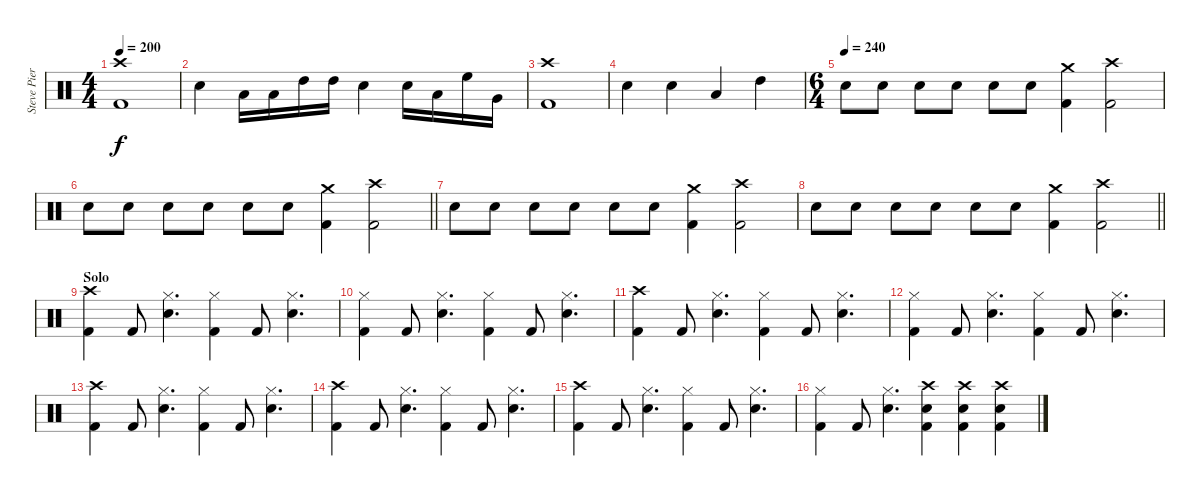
\track ("Steve Pierce" "Steve Pier") {instrument percussion}
\staff {score}
\articulation defaults
\ts (4 4)
\tempo 200
\clef neutral
\ks c
("Crash high (hit)" "Kick (hit) 2").1{dy f} |
"Snare (hit) 2".4 "Low Tom (hit)".16 "Low Tom (hit)".16 "High Tom (hit)".16 "High Tom (hit)".16 "Snare (hit) 2".4 "Snare (hit) 2".16 "Low Tom (hit)".16 "High Floor Tom (hit)".16 "Very Low Tom (hit)".16 |
("Crash high (hit)" "Kick (hit) 2").1 |
"Snare (hit) 2".4 "Snare (hit) 2".4 "Low Tom (hit)".4 "High Tom (hit)".4 |
\ts (6 4)
\tempo (240)
"Snare (hit) 2".8 "Snare (hit) 2".8 "Snare (hit) 2".8 "Snare (hit) 2".8 "Snare (hit) 2".8 "Snare (hit) 2".8 ("Crash medium (hit)" "Kick (hit) 2").4 ("Crash high (hit)" "Kick (hit) 2").2 |
\barLineRight lightlight "Snare (hit) 2".8 "Snare (hit) 2".8 "Snare (hit) 2".8 "Snare (hit) 2".8 "Snare (hit) 2".8 "Snare (hit) 2".8
("Crash medium (hit)" "Kick (hit) 2").4 ("Crash high (hit)" "Kick (hit) 2").2 |
"Snare (hit) 2".8 "Snare (hit) 2".8 "Snare (hit) 2".8 "Snare (hit) 2".8 "Snare (hit) 2".8 "Snare (hit) 2".8 ("Crash medium (hit)" "Kick (hit) 2").4 ("Crash high (hit)" "Kick (hit) 2").2 |
\barLineRight lightlight "Snare (hit) 2".8 "Snare (hit) 2".8 "Snare (hit) 2".8 "Snare (hit) 2".8 "Snare (hit) 2".8 "Snare (hit) 2".8
("Crash medium (hit)" "Kick (hit) 2").4 ("Crash high (hit)" "Kick (hit) 2").2 |
\section ("" "Solo")
("Crash high (hit)" "Kick (hit) 2").4 "Kick (hit) 2".8 ("Hi-Hat (closed)" "Snare (hit) 2").4{d} ("Hi-Hat (closed)" "Kick (hit) 2").4 "Kick (hit) 2".8 ("Hi-Hat (closed)" "Snare (hit) 2").4{d} |
("Hi-Hat (closed)" "Kick (hit) 2").4 "Kick (hit) 2".8 ("Hi-Hat (closed)" "Snare (hit) 2").4{d} ("Hi-Hat (closed)" "Kick (hit) 2").4 "Kick (hit) 2".8 ("Hi-Hat (closed)" "Snare (hit) 2").4{d} |
("Crash high (hit)" "Kick (hit) 2").4 "Kick (hit) 2".8 ("Hi-Hat (closed)" "Snare (hit) 2").4{d} ("Hi-Hat (closed)" "Kick (hit) 2").4 "Kick (hit) 2".8 ("Hi-Hat (closed)" "Snare (hit) 2").4{d} |
("Hi-Hat (closed)" "Kick (hit) 2").4 "Kick (hit) 2".8 ("Hi-Hat (closed)" "Snare (hit) 2").4{d} ("Hi-Hat (closed)" "Kick (hit) 2").4 "Kick (hit) 2".8 ("Hi-Hat (closed)" "Snare (hit) 2").4{d} |
("Crash high (hit)" "Kick (hit) 2").4 "Kick (hit) 2".8 ("Hi-Hat (closed)" "Snare (hit) 2").4{d} ("Hi-Hat (closed)" "Kick (hit) 2").4 "Kick (hit) 2".8 ("Hi-Hat (closed)" "Snare (hit) 2").4{d} |
("Crash high (hit)" "Kick (hit) 2").4 "Kick (hit) 2".8 ("Hi-Hat (closed)" "Snare (hit) 2").4{d} ("Hi-Hat (closed)" "Kick (hit) 2").4 "Kick (hit) 2".8 ("Hi-Hat (closed)" "Snare (hit) 2").4{d} |
("Crash high (hit)" "Kick (hit) 2").4 "Kick (hit) 2".8 ("Hi-Hat (closed)" "Snare (hit) 2").4{d} ("Hi-Hat (closed)" "Kick (hit) 2").4 "Kick (hit) 2".8 ("Hi-Hat (closed)" "Snare (hit) 2").4{d} |
("Hi-Hat (closed)" "Kick (hit) 2").4 "Kick (hit) 2".8 ("Hi-Hat (closed)" "Snare (hit) 2").4{d} ("Crash high (hit)" "Snare (hit) 2" "Kick (hit) 2").4 ("Crash high (hit)" "Snare (hit) 2" "Kick (hit) 2").4 ("Crash high (hit)" "Snare (hit) 2" "Kick (hit) 2").4
